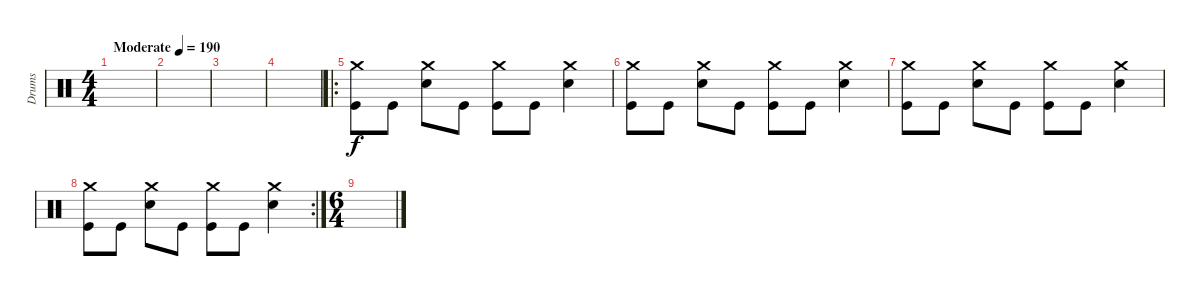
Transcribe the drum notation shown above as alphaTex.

\track ("Drums" "Drums") {instrument percussion}
\staff {score}
\articulation defaults
\ts (4 4)
\tempo (190 "Moderate")
\clef neutral
\ks c
|
|
|
|
\ro
("Crash medium (hit)" "Kick (hit)").8 "Kick (hit)".8 ("Crash medium (hit)" "Snare (hit) 2").8 "Kick (hit)".8 ("Crash medium (hit)" "Kick (hit)").8 "Kick (hit)".8 ("Crash medium (hit)" "Snare (hit) 2").4 |
("Crash medium (hit)" "Kick (hit)").8 "Kick (hit)".8 ("Crash medium (hit)" "Snare (hit) 2").8 "Kick (hit)".8 ("Crash medium (hit)" "Kick (hit)").8 "Kick (hit)".8 ("Crash medium (hit)" "Snare (hit) 2").4 |
("Crash medium (hit)" "Kick (hit)").8 "Kick (hit)".8 ("Crash medium (hit)" "Snare (hit) 2").8 "Kick (hit)".8 ("Crash medium (hit)" "Kick (hit)").8 "Kick (hit)".8 ("Crash medium (hit)" "Snare (hit) 2").4 |
\rc 2
("Crash medium (hit)" "Kick (hit)").8 "Kick (hit)".8 ("Crash medium (hit)" "Snare (hit) 2").8 "Kick (hit)".8 ("Crash medium (hit)" "Kick (hit)").8 "Kick (hit)".8 ("Crash medium (hit)" "Snare (hit) 2").4 |
\ts (6 4)
